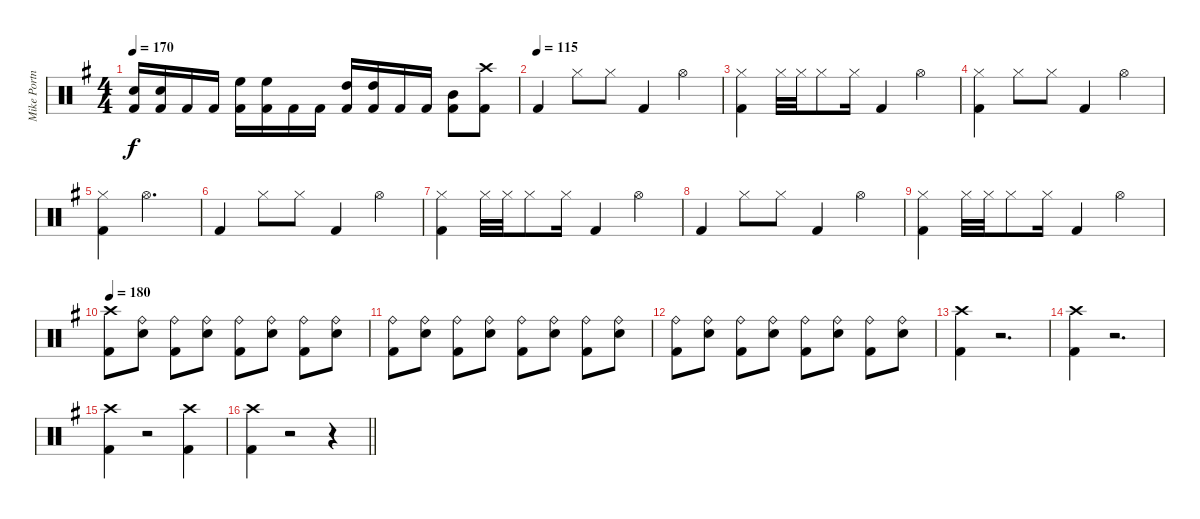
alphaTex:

\track ("Mike Portnoy - Drums" "Mike Portn") {instrument percussion}
\staff {score}
\articulation defaults
\ts (4 4)
\tempo 170
\clef neutral
\ks g
("Kick (hit) 2" "Electric Snare (hit)").16{dy f} ("Kick (hit) 2" "Electric Snare (hit)").16 "Kick (hit) 2".16 "Kick (hit) 2".16 ("Kick (hit) 2" "High Floor Tom (hit)").16 ("Kick (hit) 2" "High Floor Tom (hit)").16 "Kick (hit) 2".16 "Kick (hit) 2".16 ("Kick (hit) 2" "High Tom (hit)").16 ("Kick (hit) 2" "High Tom (hit)").16 "Kick (hit) 2".16 "Kick (hit) 2".16 ("Kick (hit) 2" "Mid Tom (hit)").8 ("Kick (hit) 2" "Crash high (hit)").8 |
\tempo (115)
"Kick (hit) 2".4 "Hi-Hat (closed)"{pm}.8 "Hi-Hat (closed)"{pm}.8 "Kick (hit) 2".4 "Hi-Hat (open)".4 |
("Hi-Hat (closed)" "Kick (hit) 2").4 "Hi-Hat (closed)".32 "Hi-Hat (closed)".32 "Hi-Hat (closed)".8 "Hi-Hat (closed)".16 "Kick (hit) 2".4 "Hi-Hat (open)".4 |
("Hi-Hat (closed)" "Kick (hit) 2").4 "Hi-Hat (closed)"{pm}.8 "Hi-Hat (closed)"{pm}.8 "Kick (hit) 2".4 "Hi-Hat (open)".4 |
("Hi-Hat (closed)" "Kick (hit) 2").4 "Hi-Hat (open)".2{d} |
"Kick (hit) 2".4 "Hi-Hat (closed)"{pm}.8 "Hi-Hat (closed)"{pm}.8 "Kick (hit) 2".4 "Hi-Hat (open)".4 |
("Hi-Hat (closed)" "Kick (hit) 2").4 "Hi-Hat (closed)".32 "Hi-Hat (closed)".32 "Hi-Hat (closed)".8 "Hi-Hat (closed)".16 "Kick (hit) 2".4 "Hi-Hat (open)".4 |
"Kick (hit) 2".4 "Hi-Hat (closed)"{pm}.8 "Hi-Hat (closed)"{pm}.8 "Kick (hit) 2".4 "Hi-Hat (open)".4 |
("Hi-Hat (closed)" "Kick (hit) 2").4 "Hi-Hat (closed)".32 "Hi-Hat (closed)".32 "Hi-Hat (closed)".8 "Hi-Hat (closed)".16 "Kick (hit) 2".4 "Hi-Hat (open)".4 |
\tempo 180
("Kick (hit) 2" "Crash high (hit)").8 ("Electric Snare (hit)" "Ride (bell)").8 ("Kick (hit) 2" "Ride (bell)").8 ("Electric Snare (hit)" "Ride (bell)").8 ("Kick (hit) 2" "Ride (bell)").8 ("Electric Snare (hit)" "Ride (bell)").8 ("Kick (hit) 2" "Ride (bell)").8 ("Electric Snare (hit)" "Ride (bell)").8 |
("Kick (hit) 2" "Ride (bell)").8 ("Electric Snare (hit)" "Ride (bell)").8 ("Kick (hit) 2" "Ride (bell)").8 ("Electric Snare (hit)" "Ride (bell)").8 ("Kick (hit) 2" "Ride (bell)").8 ("Electric Snare (hit)" "Ride (bell)").8 ("Kick (hit) 2" "Ride (bell)").8 ("Electric Snare (hit)" "Ride (bell)").8 |
("Kick (hit) 2" "Ride (bell)").8 ("Electric Snare (hit)" "Ride (bell)").8 ("Kick (hit) 2" "Ride (bell)").8 ("Electric Snare (hit)" "Ride (bell)").8 ("Kick (hit) 2" "Ride (bell)").8 ("Electric Snare (hit)" "Ride (bell)").8 ("Kick (hit) 2" "Ride (bell)").8 ("Electric Snare (hit)" "Ride (bell)").8 |
("Kick (hit) 2" "Crash high (hit)").4 r.2{d} |
("Crash high (hit)" "Kick (hit) 2").4 r.2{d} |
("Crash high (hit)" "Kick (hit) 2").4 r.2 ("Kick (hit) 2" "Crash high (hit)").4 |
\barLineRight lightlight
("Crash high (hit)" "Kick (hit) 2").4 r.2 r.4
